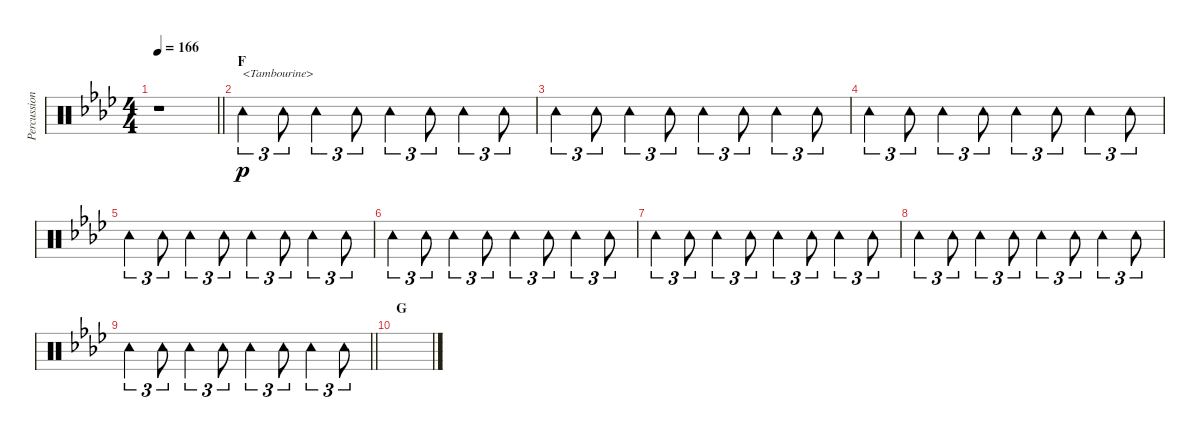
\track ("Percussion" "Percussion") {instrument percussion}
\staff {score}
\articulation defaults
\ts (4 4)
\tempo 166
\clef neutral
\barLineRight lightlight
\ks ab
r.1{dy p} |
\section ("" "F")
"Tambourine (hit)".4{tu (3 2) txt "<Tambourine>"} "Tambourine (hit)".8{tu (3 2)} "Tambourine (hit)".4{tu (3 2)} "Tambourine (hit)".8{tu (3 2)} "Tambourine (hit)".4{tu (3 2)} "Tambourine (hit)".8{tu (3 2)} "Tambourine (hit)".4{tu (3 2)} "Tambourine (hit)".8{tu (3 2)} |
"Tambourine (hit)".4{tu (3 2)} "Tambourine (hit)".8{tu (3 2)} "Tambourine (hit)".4{tu (3 2)} "Tambourine (hit)".8{tu (3 2)} "Tambourine (hit)".4{tu (3 2)} "Tambourine (hit)".8{tu (3 2)} "Tambourine (hit)".4{tu (3 2)} "Tambourine (hit)".8{tu (3 2)} |
"Tambourine (hit)".4{tu (3 2)} "Tambourine (hit)".8{tu (3 2)} "Tambourine (hit)".4{tu (3 2)} "Tambourine (hit)".8{tu (3 2)} "Tambourine (hit)".4{tu (3 2)} "Tambourine (hit)".8{tu (3 2)} "Tambourine (hit)".4{tu (3 2)} "Tambourine (hit)".8{tu (3 2)} |
"Tambourine (hit)".4{tu (3 2)} "Tambourine (hit)".8{tu (3 2)} "Tambourine (hit)".4{tu (3 2)} "Tambourine (hit)".8{tu (3 2)} "Tambourine (hit)".4{tu (3 2)} "Tambourine (hit)".8{tu (3 2)} "Tambourine (hit)".4{tu (3 2)} "Tambourine (hit)".8{tu (3 2)} |
"Tambourine (hit)".4{tu (3 2)} "Tambourine (hit)".8{tu (3 2)} "Tambourine (hit)".4{tu (3 2)} "Tambourine (hit)".8{tu (3 2)} "Tambourine (hit)".4{tu (3 2)} "Tambourine (hit)".8{tu (3 2)} "Tambourine (hit)".4{tu (3 2)} "Tambourine (hit)".8{tu (3 2)} |
"Tambourine (hit)".4{tu (3 2)} "Tambourine (hit)".8{tu (3 2)} "Tambourine (hit)".4{tu (3 2)} "Tambourine (hit)".8{tu (3 2)} "Tambourine (hit)".4{tu (3 2)} "Tambourine (hit)".8{tu (3 2)} "Tambourine (hit)".4{tu (3 2)} "Tambourine (hit)".8{tu (3 2)} |
"Tambourine (hit)".4{tu (3 2)} "Tambourine (hit)".8{tu (3 2)} "Tambourine (hit)".4{tu (3 2)} "Tambourine (hit)".8{tu (3 2)} "Tambourine (hit)".4{tu (3 2)} "Tambourine (hit)".8{tu (3 2)} "Tambourine (hit)".4{tu (3 2)} "Tambourine (hit)".8{tu (3 2)} |
\barLineRight lightlight "Tambourine (hit)".4{tu (3 2)} "Tambourine (hit)".8{tu (3 2)} "Tambourine (hit)".4{tu (3 2)} "Tambourine (hit)".8{tu (3 2)} "Tambourine (hit)".4{tu (3 2)} "Tambourine (hit)".8{tu (3 2)} "Tambourine (hit)".4{tu (3 2)} "Tambourine (hit)".8{tu (3 2)}
|
\section ("" "G")
